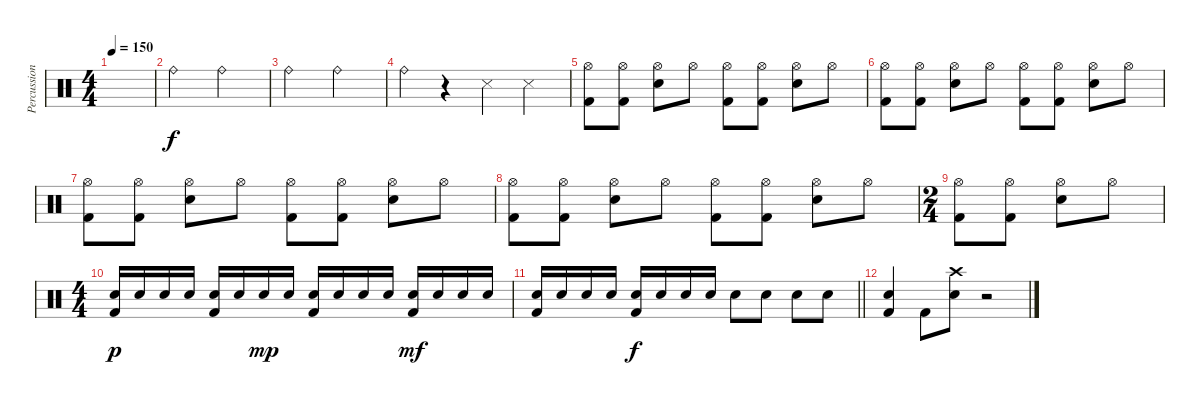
\track ("Percussion" "Percussion") {instrument percussion}
\staff
\articulation defaults
\ts (4 4)
\tempo 150
\clef neutral
\ks c
|
"Ride (bell)".2 "Ride (bell)".2 |
"Ride (bell)".2 "Ride (bell)".2 |
"Ride (bell)".4 r.4 "Snare (side stick) 3".4 "Snare (side stick) 3".4 |
("Hi-Hat (open)" "Kick (hit) 2").8 ("Hi-Hat (open)" "Kick (hit) 2").8 ("Hi-Hat (open)" "Snare (hit) 2").8 "Hi-Hat (open)".8 ("Hi-Hat (open)" "Kick (hit) 2").8 ("Hi-Hat (open)" "Kick (hit) 2").8 ("Hi-Hat (open)" "Snare (hit) 2").8 "Hi-Hat (open)".8 |
("Hi-Hat (open)" "Kick (hit) 2").8 ("Hi-Hat (open)" "Kick (hit) 2").8 ("Hi-Hat (open)" "Snare (hit) 2").8 "Hi-Hat (open)".8 ("Hi-Hat (open)" "Kick (hit) 2").8 ("Hi-Hat (open)" "Kick (hit) 2").8 ("Hi-Hat (open)" "Snare (hit) 2").8 "Hi-Hat (open)".8 |
("Hi-Hat (open)" "Kick (hit) 2").8 ("Hi-Hat (open)" "Kick (hit) 2").8 ("Hi-Hat (open)" "Snare (hit) 2").8 "Hi-Hat (open)".8 ("Hi-Hat (open)" "Kick (hit) 2").8 ("Hi-Hat (open)" "Kick (hit) 2").8 ("Hi-Hat (open)" "Snare (hit) 2").8 "Hi-Hat (open)".8 |
("Hi-Hat (open)" "Kick (hit) 2").8 ("Hi-Hat (open)" "Kick (hit) 2").8 ("Hi-Hat (open)" "Snare (hit) 2").8 "Hi-Hat (open)".8 ("Hi-Hat (open)" "Kick (hit) 2").8 ("Hi-Hat (open)" "Kick (hit) 2").8 ("Hi-Hat (open)" "Snare (hit) 2").8 "Hi-Hat (open)".8 |
\ts (2 4)
("Hi-Hat (open)" "Kick (hit) 2").8 ("Hi-Hat (open)" "Kick (hit) 2").8 ("Hi-Hat (open)" "Snare (hit) 2").8 "Hi-Hat (open)".8 |
\ts (4 4)
("Snare (hit) 2" "Kick (hit) 2").16{dy p} "Snare (hit) 2".16 "Snare (hit) 2".16 "Snare (hit) 2".16 ("Snare (hit) 2" "Kick (hit) 2").16 "Snare (hit) 2".16 "Snare (hit) 2".16{dy mp} "Snare (hit) 2".16 ("Snare (hit) 2" "Kick (hit) 2").16 "Snare (hit) 2".16 "Snare (hit) 2".16 "Snare (hit) 2".16 ("Snare (hit) 2" "Kick (hit) 2").16{dy mf} "Snare (hit) 2".16 "Snare (hit) 2".16 "Snare (hit) 2".16 |
\barLineRight lightlight
("Snare (hit) 2" "Kick (hit) 2").16 "Snare (hit) 2".16 "Snare (hit) 2".16 "Snare (hit) 2".16 ("Snare (hit) 2" "Kick (hit) 2").16{dy f} "Snare (hit) 2".16 "Snare (hit) 2".16 "Snare (hit) 2".16 "Snare (hit) 2".8 "Snare (hit) 2".8 "Snare (hit) 2".8 "Snare (hit) 2".8 |
("Snare (hit) 2" "Kick (hit) 2").4 "Kick (hit) 2".8 ("Crash high (hit)" "Snare (hit) 2").8 r.2
